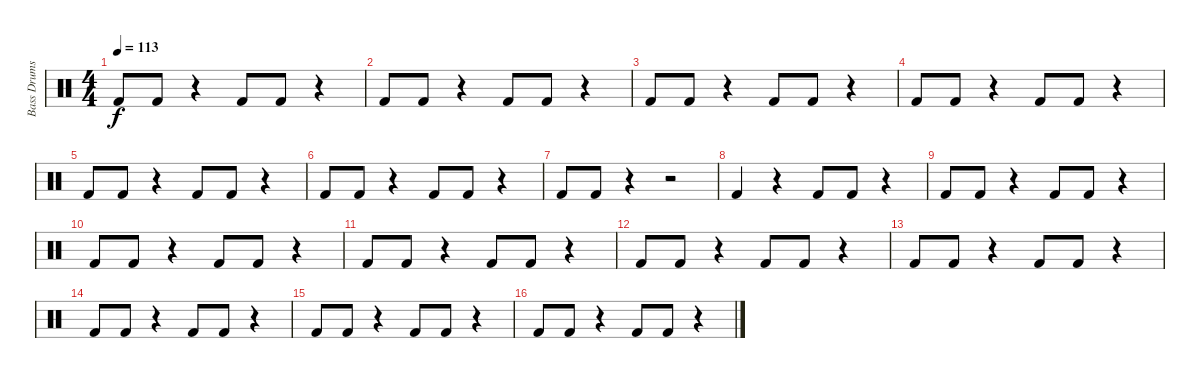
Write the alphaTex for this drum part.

\track ("Bass Drums" "Bass Drums") {instrument percussion}
\staff {score}
\articulation defaults
\ts (4 4)
\tempo 113
\clef neutral
\ks c "Kick (hit) 2".8{dy f} "Kick (hit) 2".8
r.4 "Kick (hit) 2".8 "Kick (hit) 2".8 r.4 |
"Kick (hit) 2".8 "Kick (hit) 2".8 r.4 "Kick (hit) 2".8 "Kick (hit) 2".8 r.4 |
"Kick (hit) 2".8 "Kick (hit) 2".8 r.4 "Kick (hit) 2".8 "Kick (hit) 2".8 r.4 |
"Kick (hit) 2".8 "Kick (hit) 2".8 r.4 "Kick (hit) 2".8 "Kick (hit) 2".8 r.4 |
"Kick (hit) 2".8 "Kick (hit) 2".8 r.4 "Kick (hit) 2".8 "Kick (hit) 2".8 r.4 |
"Kick (hit) 2".8 "Kick (hit) 2".8 r.4 "Kick (hit) 2".8 "Kick (hit) 2".8 r.4 |
"Kick (hit) 2".8 "Kick (hit) 2".8 r.4 r.2 |
"Kick (hit) 2".4 r.4 "Kick (hit) 2".8 "Kick (hit) 2".8 r.4 |
"Kick (hit) 2".8 "Kick (hit) 2".8 r.4 "Kick (hit) 2".8 "Kick (hit) 2".8 r.4 |
"Kick (hit) 2".8 "Kick (hit) 2".8 r.4 "Kick (hit) 2".8 "Kick (hit) 2".8 r.4 |
"Kick (hit) 2".8 "Kick (hit) 2".8 r.4 "Kick (hit) 2".8 "Kick (hit) 2".8 r.4 |
"Kick (hit) 2".8 "Kick (hit) 2".8 r.4 "Kick (hit) 2".8 "Kick (hit) 2".8 r.4 |
"Kick (hit) 2".8 "Kick (hit) 2".8 r.4 "Kick (hit) 2".8 "Kick (hit) 2".8 r.4 |
"Kick (hit) 2".8 "Kick (hit) 2".8 r.4 "Kick (hit) 2".8 "Kick (hit) 2".8 r.4 |
"Kick (hit) 2".8 "Kick (hit) 2".8 r.4 "Kick (hit) 2".8 "Kick (hit) 2".8 r.4 |
"Kick (hit) 2".8 "Kick (hit) 2".8 r.4 "Kick (hit) 2".8 "Kick (hit) 2".8 r.4
